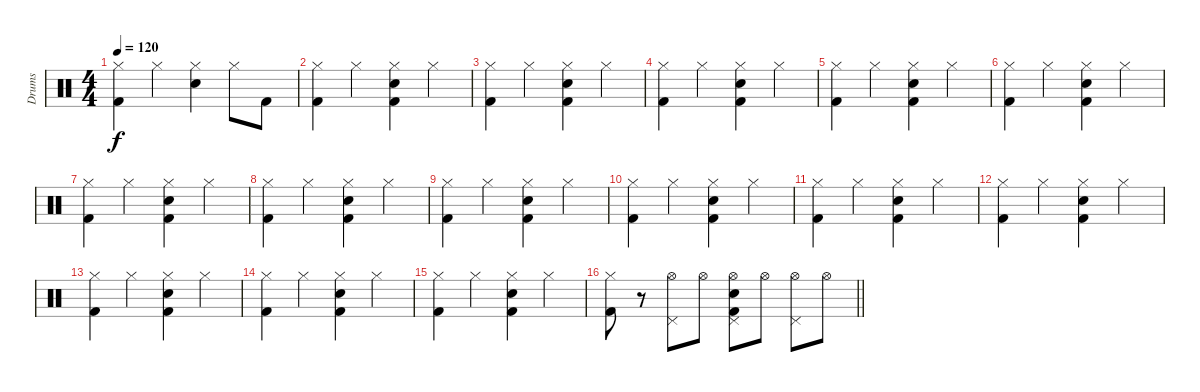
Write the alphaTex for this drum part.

\track ("Drums" "Drums") {instrument percussion}
\staff {score}
\articulation defaults
\ts (4 4)
\tempo 120
\clef neutral
\ks c
("Hi-Hat (closed)" "Kick (hit) 2").4{dy f} "Hi-Hat (closed)".4 ("Hi-Hat (closed)" "Electric Snare (hit)").4 "Hi-Hat (closed)".8 "Kick (hit) 2".8 |
("Hi-Hat (closed)" "Kick (hit) 2").4 "Hi-Hat (closed)".4 ("Hi-Hat (closed)" "Electric Snare (hit)" "Kick (hit) 2").4 "Hi-Hat (closed)".4 |
("Hi-Hat (closed)" "Kick (hit) 2").4 "Hi-Hat (closed)".4 ("Hi-Hat (closed)" "Electric Snare (hit)" "Kick (hit) 2").4 "Hi-Hat (closed)".4 |
("Hi-Hat (closed)" "Kick (hit) 2").4 "Hi-Hat (closed)".4 ("Hi-Hat (closed)" "Electric Snare (hit)" "Kick (hit) 2").4 "Hi-Hat (closed)".4 |
("Hi-Hat (closed)" "Kick (hit) 2").4 "Hi-Hat (closed)".4 ("Hi-Hat (closed)" "Electric Snare (hit)" "Kick (hit) 2").4 "Hi-Hat (closed)".4 |
("Hi-Hat (closed)" "Kick (hit) 2").4 "Hi-Hat (closed)".4 ("Hi-Hat (closed)" "Electric Snare (hit)" "Kick (hit) 2").4 "Hi-Hat (closed)".4 |
("Hi-Hat (closed)" "Kick (hit) 2").4 "Hi-Hat (closed)".4 ("Hi-Hat (closed)" "Electric Snare (hit)" "Kick (hit) 2").4 "Hi-Hat (closed)".4 |
("Hi-Hat (closed)" "Kick (hit) 2").4 "Hi-Hat (closed)".4 ("Hi-Hat (closed)" "Electric Snare (hit)" "Kick (hit) 2").4 "Hi-Hat (closed)".4 |
("Hi-Hat (closed)" "Kick (hit) 2").4 "Hi-Hat (closed)".4 ("Hi-Hat (closed)" "Electric Snare (hit)" "Kick (hit) 2").4 "Hi-Hat (closed)".4 |
("Hi-Hat (closed)" "Kick (hit) 2").4 "Hi-Hat (closed)".4 ("Hi-Hat (closed)" "Electric Snare (hit)" "Kick (hit) 2").4 "Hi-Hat (closed)".4 |
("Hi-Hat (closed)" "Kick (hit) 2").4 "Hi-Hat (closed)".4 ("Hi-Hat (closed)" "Electric Snare (hit)" "Kick (hit) 2").4 "Hi-Hat (closed)".4 |
("Hi-Hat (closed)" "Kick (hit) 2").4 "Hi-Hat (closed)".4 ("Hi-Hat (closed)" "Electric Snare (hit)" "Kick (hit) 2").4 "Hi-Hat (closed)".4 |
("Hi-Hat (closed)" "Kick (hit) 2").4 "Hi-Hat (closed)".4 ("Hi-Hat (closed)" "Electric Snare (hit)" "Kick (hit) 2").4 "Hi-Hat (closed)".4 |
("Hi-Hat (closed)" "Kick (hit) 2").4 "Hi-Hat (closed)".4 ("Hi-Hat (closed)" "Electric Snare (hit)" "Kick (hit) 2").4 "Hi-Hat (closed)".4 |
("Hi-Hat (closed)" "Kick (hit) 2").4 "Hi-Hat (closed)".4 ("Hi-Hat (closed)" "Electric Snare (hit)" "Kick (hit) 2").4 "Hi-Hat (closed)".4 |
\barLineRight lightlight
("Hi-Hat (closed)" "Kick (hit) 2").8 r.8 ("Hi-Hat (open)" "Pedal Hi-Hat (hit)").8 "Hi-Hat (open)".8 ("Hi-Hat (open)" "Pedal Hi-Hat (hit)" "Electric Snare (hit)" "Kick (hit) 2").8 "Hi-Hat (open)".8 ("Hi-Hat (open)" "Pedal Hi-Hat (hit)").8 "Hi-Hat (open)".8
